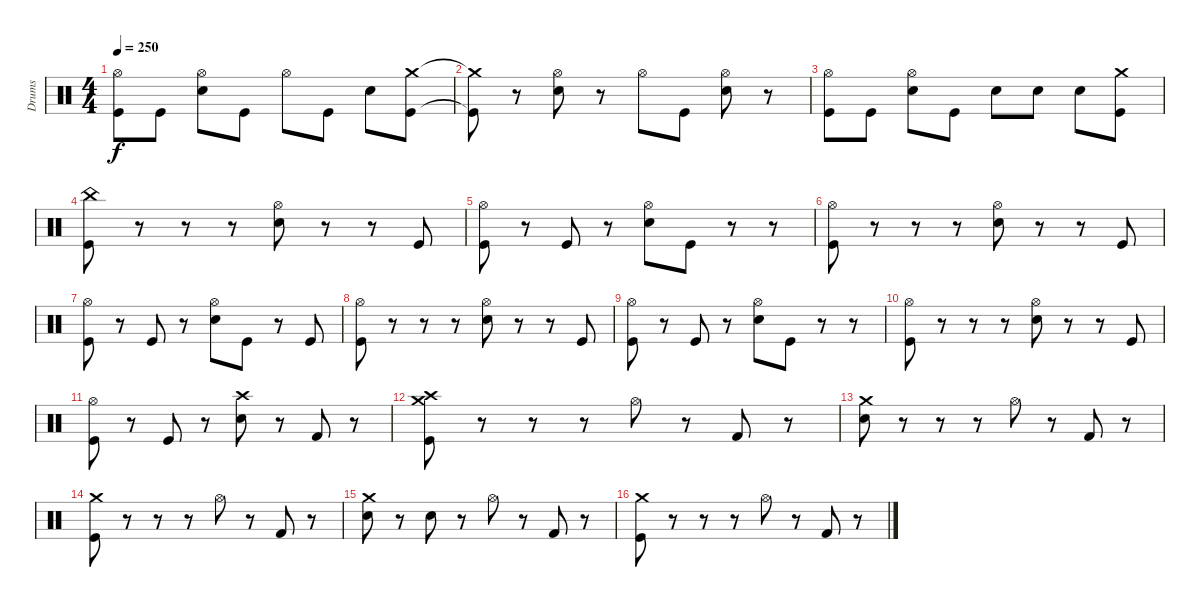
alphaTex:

\track ("Drums" "Drums") {instrument percussion}
\staff {score}
\articulation defaults
\ts (4 4)
\tempo 250
\clef neutral
\ks c
("Hi-Hat (open)" "Kick (hit)").8{dy f} "Kick (hit)".8 ("Hi-Hat (open)" "Electric Snare (hit)").8 "Kick (hit)".8 "Hi-Hat (open)".8 "Kick (hit)".8 "Electric Snare (hit)".8 ("Crash medium (hit)" "Kick (hit)").8 |
("Crash medium (hit)"{t} "Kick (hit)"{t}).8 r.8 ("Hi-Hat (open)" "Electric Snare (hit)").8 r.8 "Hi-Hat (open)".8 "Kick (hit)".8 ("Hi-Hat (open)" "Electric Snare (hit)").8 r.8 |
("Hi-Hat (open)" "Kick (hit)").8 "Kick (hit)".8 ("Hi-Hat (open)" "Electric Snare (hit)").8 "Kick (hit)".8 "Electric Snare (hit)".8 "Electric Snare (hit)".8 "Electric Snare (hit)".8 ("Crash medium (hit)" "Kick (hit)").8 |
("China (hit)" "Kick (hit)").8 r.8 r.8 r.8 ("Hi-Hat (open)" "Electric Snare (hit)").8 r.8 r.8 "Kick (hit)".8 |
("Hi-Hat (open)" "Kick (hit)").8 r.8 "Kick (hit)".8 r.8 ("Hi-Hat (open)" "Electric Snare (hit)").8 "Kick (hit)".8 r.8 r.8 |
("Hi-Hat (open)" "Kick (hit)").8 r.8 r.8 r.8 ("Hi-Hat (open)" "Electric Snare (hit)").8 r.8 r.8 "Kick (hit)".8 |
("Hi-Hat (open)" "Kick (hit)").8 r.8 "Kick (hit)".8 r.8 ("Hi-Hat (open)" "Electric Snare (hit)").8 "Kick (hit)".8 r.8 "Kick (hit)".8 |
("Hi-Hat (open)" "Kick (hit)").8 r.8 r.8 r.8 ("Hi-Hat (open)" "Electric Snare (hit)").8 r.8 r.8 "Kick (hit)".8 |
("Hi-Hat (open)" "Kick (hit)").8 r.8 "Kick (hit)".8 r.8 ("Hi-Hat (open)" "Electric Snare (hit)").8 "Kick (hit)".8 r.8 r.8 |
("Hi-Hat (open)" "Kick (hit)").8 r.8 r.8 r.8 ("Hi-Hat (open)" "Electric Snare (hit)").8 r.8 r.8 "Kick (hit)".8 |
("Hi-Hat (open)" "Kick (hit)").8 r.8 "Kick (hit)".8 r.8 ("Crash high (hit)" "Electric Snare (hit)").8 r.8 "Kick (hit) 2".8 r.8 |
("Crash medium (hit)" "Crash high (hit)" "Kick (hit)").8 r.8 r.8 r.8 "Hi-Hat (open)".8 r.8 "Kick (hit) 2".8 r.8 |
("Crash medium (hit)" "Electric Snare (hit)").8 r.8 r.8 r.8 "Hi-Hat (open)".8 r.8 "Kick (hit) 2".8 r.8 |
("Crash medium (hit)" "Kick (hit)").8 r.8 r.8 r.8 "Hi-Hat (open)".8 r.8 "Kick (hit) 2".8 r.8 |
("Crash medium (hit)" "Electric Snare (hit)").8 r.8 "Electric Snare (hit)".8 r.8 "Hi-Hat (open)".8 r.8 "Kick (hit) 2".8 r.8 |
("Crash medium (hit)" "Kick (hit)").8 r.8 r.8 r.8 "Hi-Hat (open)".8 r.8 "Kick (hit) 2".8 r.8
